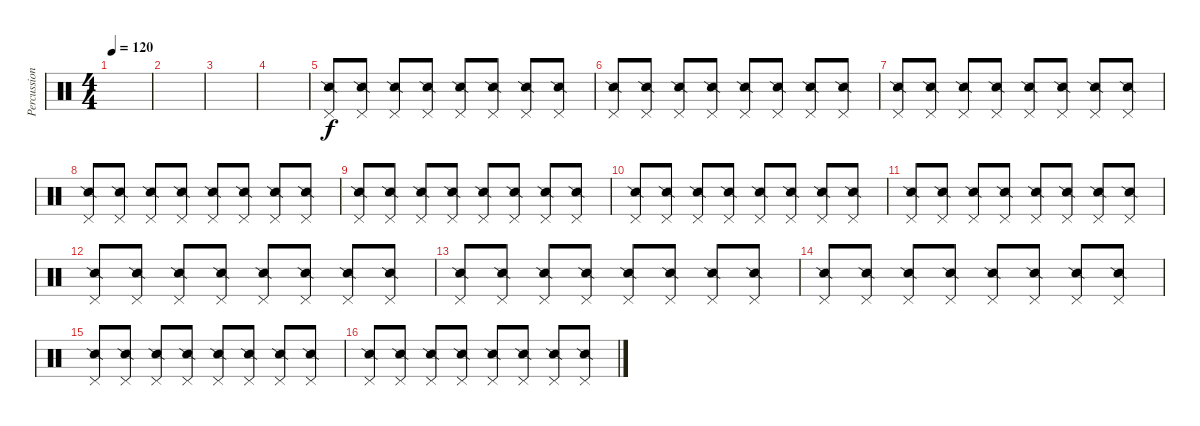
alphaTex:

\track ("Percussion" "Percussion") {instrument percussion}
\staff {score}
\articulation defaults
\ts (4 4)
\tempo 120
\clef neutral
\ks c
|
|
|
|
("Pedal Hi-Hat (hit)" "Snare (side stick) 2").8 ("Pedal Hi-Hat (hit)" "Snare (side stick) 2").8 ("Pedal Hi-Hat (hit)" "Snare (side stick) 2").8 ("Pedal Hi-Hat (hit)" "Snare (side stick) 2").8 ("Pedal Hi-Hat (hit)" "Snare (side stick) 2").8 ("Pedal Hi-Hat (hit)" "Snare (side stick) 2").8 ("Pedal Hi-Hat (hit)" "Snare (side stick) 2").8 ("Pedal Hi-Hat (hit)" "Snare (side stick) 2").8 |
("Pedal Hi-Hat (hit)" "Snare (side stick) 2").8 ("Pedal Hi-Hat (hit)" "Snare (side stick) 2").8 ("Pedal Hi-Hat (hit)" "Snare (side stick) 2").8 ("Pedal Hi-Hat (hit)" "Snare (side stick) 2").8 ("Pedal Hi-Hat (hit)" "Snare (side stick) 2").8 ("Pedal Hi-Hat (hit)" "Snare (side stick) 2").8 ("Pedal Hi-Hat (hit)" "Snare (side stick) 2").8 ("Pedal Hi-Hat (hit)" "Snare (side stick) 2").8 |
("Pedal Hi-Hat (hit)" "Snare (side stick) 2").8 ("Pedal Hi-Hat (hit)" "Snare (side stick) 2").8 ("Pedal Hi-Hat (hit)" "Snare (side stick) 2").8 ("Pedal Hi-Hat (hit)" "Snare (side stick) 2").8 ("Pedal Hi-Hat (hit)" "Snare (side stick) 2").8 ("Pedal Hi-Hat (hit)" "Snare (side stick) 2").8 ("Pedal Hi-Hat (hit)" "Snare (side stick) 2").8 ("Pedal Hi-Hat (hit)" "Snare (side stick) 2").8 |
("Pedal Hi-Hat (hit)" "Snare (side stick) 2").8 ("Pedal Hi-Hat (hit)" "Snare (side stick) 2").8 ("Pedal Hi-Hat (hit)" "Snare (side stick) 2").8 ("Pedal Hi-Hat (hit)" "Snare (side stick) 2").8 ("Pedal Hi-Hat (hit)" "Snare (side stick) 2").8 ("Pedal Hi-Hat (hit)" "Snare (side stick) 2").8 ("Pedal Hi-Hat (hit)" "Snare (side stick) 2").8 ("Pedal Hi-Hat (hit)" "Snare (side stick) 2").8 |
("Pedal Hi-Hat (hit)" "Snare (side stick) 2").8 ("Pedal Hi-Hat (hit)" "Snare (side stick) 2").8 ("Pedal Hi-Hat (hit)" "Snare (side stick) 2").8 ("Pedal Hi-Hat (hit)" "Snare (side stick) 2").8 ("Pedal Hi-Hat (hit)" "Snare (side stick) 2").8 ("Pedal Hi-Hat (hit)" "Snare (side stick) 2").8 ("Pedal Hi-Hat (hit)" "Snare (side stick) 2").8 ("Pedal Hi-Hat (hit)" "Snare (side stick) 2").8 |
("Pedal Hi-Hat (hit)" "Snare (side stick) 2").8 ("Pedal Hi-Hat (hit)" "Snare (side stick) 2").8 ("Pedal Hi-Hat (hit)" "Snare (side stick) 2").8 ("Pedal Hi-Hat (hit)" "Snare (side stick) 2").8 ("Pedal Hi-Hat (hit)" "Snare (side stick) 2").8 ("Pedal Hi-Hat (hit)" "Snare (side stick) 2").8 ("Pedal Hi-Hat (hit)" "Snare (side stick) 2").8 ("Pedal Hi-Hat (hit)" "Snare (side stick) 2").8 |
("Pedal Hi-Hat (hit)" "Snare (side stick) 2").8 ("Pedal Hi-Hat (hit)" "Snare (side stick) 2").8 ("Pedal Hi-Hat (hit)" "Snare (side stick) 2").8 ("Pedal Hi-Hat (hit)" "Snare (side stick) 2").8 ("Pedal Hi-Hat (hit)" "Snare (side stick) 2").8 ("Pedal Hi-Hat (hit)" "Snare (side stick) 2").8 ("Pedal Hi-Hat (hit)" "Snare (side stick) 2").8 ("Pedal Hi-Hat (hit)" "Snare (side stick) 2").8 |
("Pedal Hi-Hat (hit)" "Snare (side stick) 2").8 ("Pedal Hi-Hat (hit)" "Snare (side stick) 2").8 ("Pedal Hi-Hat (hit)" "Snare (side stick) 2").8 ("Pedal Hi-Hat (hit)" "Snare (side stick) 2").8 ("Pedal Hi-Hat (hit)" "Snare (side stick) 2").8 ("Pedal Hi-Hat (hit)" "Snare (side stick) 2").8 ("Pedal Hi-Hat (hit)" "Snare (side stick) 2").8 ("Pedal Hi-Hat (hit)" "Snare (side stick) 2").8 |
("Pedal Hi-Hat (hit)" "Snare (side stick) 2").8 ("Pedal Hi-Hat (hit)" "Snare (side stick) 2").8 ("Pedal Hi-Hat (hit)" "Snare (side stick) 2").8 ("Pedal Hi-Hat (hit)" "Snare (side stick) 2").8 ("Pedal Hi-Hat (hit)" "Snare (side stick) 2").8 ("Pedal Hi-Hat (hit)" "Snare (side stick) 2").8 ("Pedal Hi-Hat (hit)" "Snare (side stick) 2").8 ("Pedal Hi-Hat (hit)" "Snare (side stick) 2").8 |
("Pedal Hi-Hat (hit)" "Snare (side stick) 2").8 ("Pedal Hi-Hat (hit)" "Snare (side stick) 2").8 ("Pedal Hi-Hat (hit)" "Snare (side stick) 2").8 ("Pedal Hi-Hat (hit)" "Snare (side stick) 2").8 ("Pedal Hi-Hat (hit)" "Snare (side stick) 2").8 ("Pedal Hi-Hat (hit)" "Snare (side stick) 2").8 ("Pedal Hi-Hat (hit)" "Snare (side stick) 2").8 ("Pedal Hi-Hat (hit)" "Snare (side stick) 2").8 |
("Pedal Hi-Hat (hit)" "Snare (side stick) 2").8 ("Pedal Hi-Hat (hit)" "Snare (side stick) 2").8 ("Pedal Hi-Hat (hit)" "Snare (side stick) 2").8 ("Pedal Hi-Hat (hit)" "Snare (side stick) 2").8 ("Pedal Hi-Hat (hit)" "Snare (side stick) 2").8 ("Pedal Hi-Hat (hit)" "Snare (side stick) 2").8 ("Pedal Hi-Hat (hit)" "Snare (side stick) 2").8 ("Pedal Hi-Hat (hit)" "Snare (side stick) 2").8 |
("Pedal Hi-Hat (hit)" "Snare (side stick) 2").8 ("Pedal Hi-Hat (hit)" "Snare (side stick) 2").8 ("Pedal Hi-Hat (hit)" "Snare (side stick) 2").8 ("Pedal Hi-Hat (hit)" "Snare (side stick) 2").8 ("Pedal Hi-Hat (hit)" "Snare (side stick) 2").8 ("Pedal Hi-Hat (hit)" "Snare (side stick) 2").8 ("Pedal Hi-Hat (hit)" "Snare (side stick) 2").8 ("Pedal Hi-Hat (hit)" "Snare (side stick) 2").8
